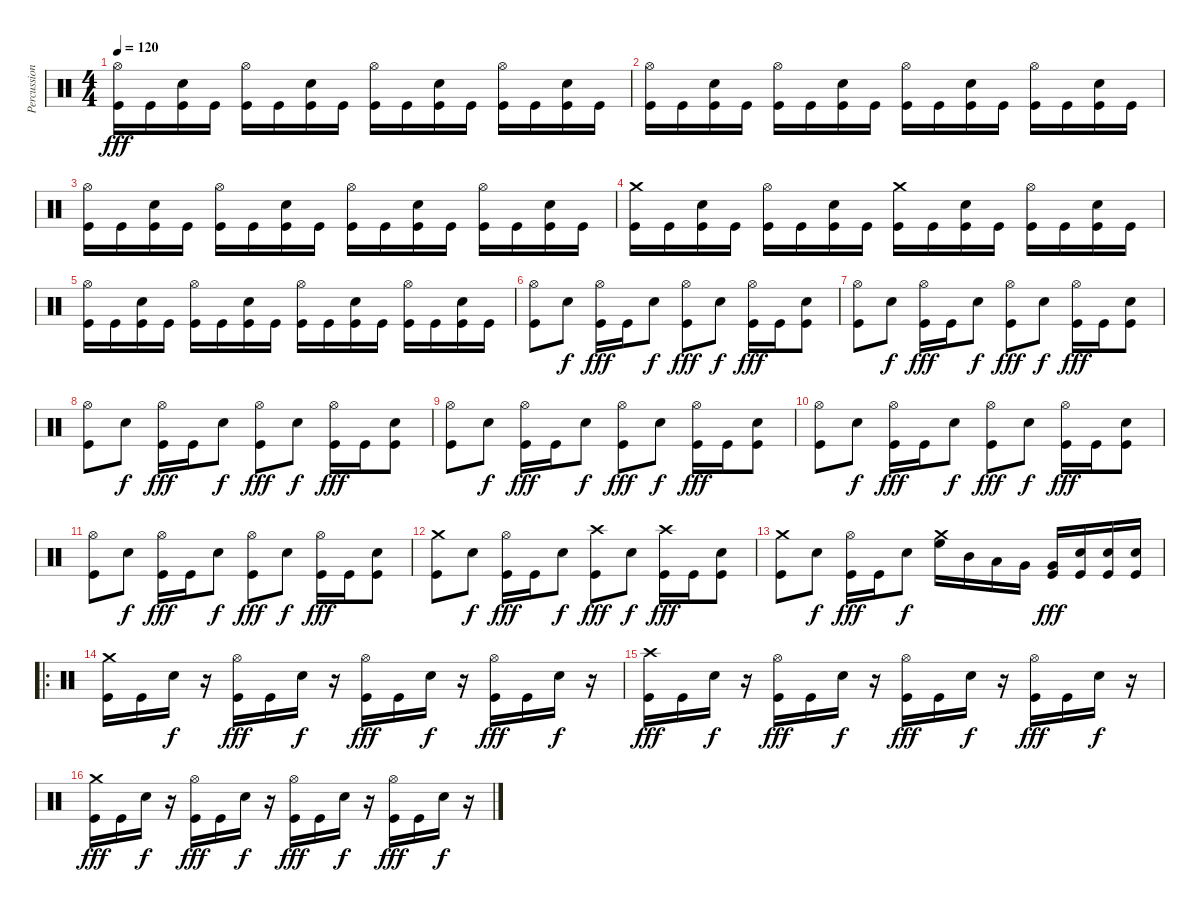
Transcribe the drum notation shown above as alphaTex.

\track ("Percussion" "Percussion") {instrument percussion}
\staff {score}
\articulation defaults
\ts (4 4)
\tempo 120
\clef neutral
\ks c
("Hi-Hat (open)" "Kick (hit)").16{dy fff} "Kick (hit)".16 ("Electric Snare (hit)" "Kick (hit)").16 "Kick (hit)".16 ("Hi-Hat (open)" "Kick (hit)").16 "Kick (hit)".16 ("Electric Snare (hit)" "Kick (hit)").16 "Kick (hit)".16 ("Hi-Hat (open)" "Kick (hit)").16 "Kick (hit)".16 ("Electric Snare (hit)" "Kick (hit)").16 "Kick (hit)".16 ("Hi-Hat (open)" "Kick (hit)").16 "Kick (hit)".16 ("Electric Snare (hit)" "Kick (hit)").16 "Kick (hit)".16 |
("Hi-Hat (open)" "Kick (hit)").16 "Kick (hit)".16 ("Electric Snare (hit)" "Kick (hit)").16 "Kick (hit)".16 ("Hi-Hat (open)" "Kick (hit)").16 "Kick (hit)".16 ("Electric Snare (hit)" "Kick (hit)").16 "Kick (hit)".16 ("Hi-Hat (open)" "Kick (hit)").16 "Kick (hit)".16 ("Electric Snare (hit)" "Kick (hit)").16 "Kick (hit)".16 ("Hi-Hat (open)" "Kick (hit)").16 "Kick (hit)".16 ("Electric Snare (hit)" "Kick (hit)").16 "Kick (hit)".16 |
("Hi-Hat (open)" "Kick (hit)").16 "Kick (hit)".16 ("Electric Snare (hit)" "Kick (hit)").16 "Kick (hit)".16 ("Hi-Hat (open)" "Kick (hit)").16 "Kick (hit)".16 ("Electric Snare (hit)" "Kick (hit)").16 "Kick (hit)".16 ("Hi-Hat (open)" "Kick (hit)").16 "Kick (hit)".16 ("Electric Snare (hit)" "Kick (hit)").16 "Kick (hit)".16 ("Hi-Hat (open)" "Kick (hit)").16 "Kick (hit)".16 ("Electric Snare (hit)" "Kick (hit)").16 "Kick (hit)".16 |
("Crash medium (hit)" "Kick (hit)").16 "Kick (hit)".16 ("Electric Snare (hit)" "Kick (hit)").16 "Kick (hit)".16 ("Hi-Hat (open)" "Kick (hit)").16 "Kick (hit)".16 ("Electric Snare (hit)" "Kick (hit)").16 "Kick (hit)".16 ("Crash medium (hit)" "Kick (hit)").16 "Kick (hit)".16 ("Electric Snare (hit)" "Kick (hit)").16 "Kick (hit)".16 ("Hi-Hat (open)" "Kick (hit)").16 "Kick (hit)".16 ("Electric Snare (hit)" "Kick (hit)").16 "Kick (hit)".16 |
("Hi-Hat (open)" "Kick (hit)").16 "Kick (hit)".16 ("Electric Snare (hit)" "Kick (hit)").16 "Kick (hit)".16 ("Hi-Hat (open)" "Kick (hit)").16 "Kick (hit)".16 ("Electric Snare (hit)" "Kick (hit)").16 "Kick (hit)".16 ("Hi-Hat (open)" "Kick (hit)").16 "Kick (hit)".16 ("Electric Snare (hit)" "Kick (hit)").16 "Kick (hit)".16 ("Hi-Hat (open)" "Kick (hit)").16 "Kick (hit)".16 ("Electric Snare (hit)" "Kick (hit)").16 "Kick (hit)".16 |
("Hi-Hat (open)" "Kick (hit)").8 "Electric Snare (hit)".8{dy f} ("Hi-Hat (open)" "Kick (hit)").16{dy fff} "Kick (hit)".16 "Electric Snare (hit)".8{dy f} ("Hi-Hat (open)" "Kick (hit)").8{dy fff} "Electric Snare (hit)".8{dy f} ("Hi-Hat (open)" "Kick (hit)").16{dy fff} "Kick (hit)".16 ("Electric Snare (hit)" "Kick (hit)").8 |
("Hi-Hat (open)" "Kick (hit)").8 "Electric Snare (hit)".8{dy f} ("Hi-Hat (open)" "Kick (hit)").16{dy fff} "Kick (hit)".16 "Electric Snare (hit)".8{dy f} ("Hi-Hat (open)" "Kick (hit)").8{dy fff} "Electric Snare (hit)".8{dy f} ("Hi-Hat (open)" "Kick (hit)").16{dy fff} "Kick (hit)".16 ("Electric Snare (hit)" "Kick (hit)").8 |
("Hi-Hat (open)" "Kick (hit)").8 "Electric Snare (hit)".8{dy f} ("Hi-Hat (open)" "Kick (hit)").16{dy fff} "Kick (hit)".16 "Electric Snare (hit)".8{dy f} ("Hi-Hat (open)" "Kick (hit)").8{dy fff} "Electric Snare (hit)".8{dy f} ("Hi-Hat (open)" "Kick (hit)").16{dy fff} "Kick (hit)".16 ("Electric Snare (hit)" "Kick (hit)").8 |
("Hi-Hat (open)" "Kick (hit)").8 "Electric Snare (hit)".8{dy f} ("Hi-Hat (open)" "Kick (hit)").16{dy fff} "Kick (hit)".16 "Electric Snare (hit)".8{dy f} ("Hi-Hat (open)" "Kick (hit)").8{dy fff} "Electric Snare (hit)".8{dy f} ("Hi-Hat (open)" "Kick (hit)").16{dy fff} "Kick (hit)".16 ("Electric Snare (hit)" "Kick (hit)").8 |
("Hi-Hat (open)" "Kick (hit)").8 "Electric Snare (hit)".8{dy f} ("Hi-Hat (open)" "Kick (hit)").16{dy fff} "Kick (hit)".16 "Electric Snare (hit)".8{dy f} ("Hi-Hat (open)" "Kick (hit)").8{dy fff} "Electric Snare (hit)".8{dy f} ("Hi-Hat (open)" "Kick (hit)").16{dy fff} "Kick (hit)".16 ("Electric Snare (hit)" "Kick (hit)").8 |
("Hi-Hat (open)" "Kick (hit)").8 "Electric Snare (hit)".8{dy f} ("Hi-Hat (open)" "Kick (hit)").16{dy fff} "Kick (hit)".16 "Electric Snare (hit)".8{dy f} ("Hi-Hat (open)" "Kick (hit)").8{dy fff} "Electric Snare (hit)".8{dy f} ("Hi-Hat (open)" "Kick (hit)").16{dy fff} "Kick (hit)".16 ("Electric Snare (hit)" "Kick (hit)").8 |
("Crash medium (hit)" "Kick (hit)").8 "Electric Snare (hit)".8{dy f} ("Hi-Hat (open)" "Kick (hit)").16{dy fff} "Kick (hit)".16 "Electric Snare (hit)".8{dy f} ("Crash high (hit)" "Kick (hit)").8{dy fff} "Electric Snare (hit)".8{dy f} ("Crash high (hit)" "Kick (hit)").16{dy fff} "Kick (hit)".16 ("Electric Snare (hit)" "Kick (hit)").8 |
("Crash medium (hit)" "Kick (hit)").8 "Electric Snare (hit)".8{dy f} ("Hi-Hat (open)" "Kick (hit)").16{dy fff} "Kick (hit)".16 "Electric Snare (hit)".8{dy f} ("Crash medium (hit)" "High Floor Tom (hit)").16 "Mid Tom (hit)".16 "Low Tom (hit)".16 "Very Low Tom (hit)".16 ("Very Low Tom (hit)" "Kick (hit)").16{dy fff} ("Electric Snare (hit)" "Kick (hit)").16 ("Electric Snare (hit)" "Kick (hit)").16 ("Electric Snare (hit)" "Kick (hit)").16 |
\ro
("Crash medium (hit)" "Kick (hit)").16 "Kick (hit)".16 "Electric Snare (hit)".16{dy f} r.16 ("Hi-Hat (open)" "Kick (hit)").16{dy fff} "Kick (hit)".16 "Electric Snare (hit)".16{dy f} r.16 ("Hi-Hat (open)" "Kick (hit)").16{dy fff} "Kick (hit)".16 "Electric Snare (hit)".16{dy f} r.16 ("Hi-Hat (open)" "Kick (hit)").16{dy fff} "Kick (hit)".16 "Electric Snare (hit)".16{dy f} r.16 |
("Crash high (hit)" "Kick (hit)").16{dy fff} "Kick (hit)".16 "Electric Snare (hit)".16{dy f} r.16 ("Hi-Hat (open)" "Kick (hit)").16{dy fff} "Kick (hit)".16 "Electric Snare (hit)".16{dy f} r.16 ("Hi-Hat (open)" "Kick (hit)").16{dy fff} "Kick (hit)".16 "Electric Snare (hit)".16{dy f} r.16 ("Hi-Hat (open)" "Kick (hit)").16{dy fff} "Kick (hit)".16 "Electric Snare (hit)".16{dy f} r.16 |
("Crash medium (hit)" "Kick (hit)").16{dy fff} "Kick (hit)".16 "Electric Snare (hit)".16{dy f} r.16 ("Hi-Hat (open)" "Kick (hit)").16{dy fff} "Kick (hit)".16 "Electric Snare (hit)".16{dy f} r.16 ("Hi-Hat (open)" "Kick (hit)").16{dy fff} "Kick (hit)".16 "Electric Snare (hit)".16{dy f} r.16 ("Hi-Hat (open)" "Kick (hit)").16{dy fff} "Kick (hit)".16 "Electric Snare (hit)".16{dy f} r.16
